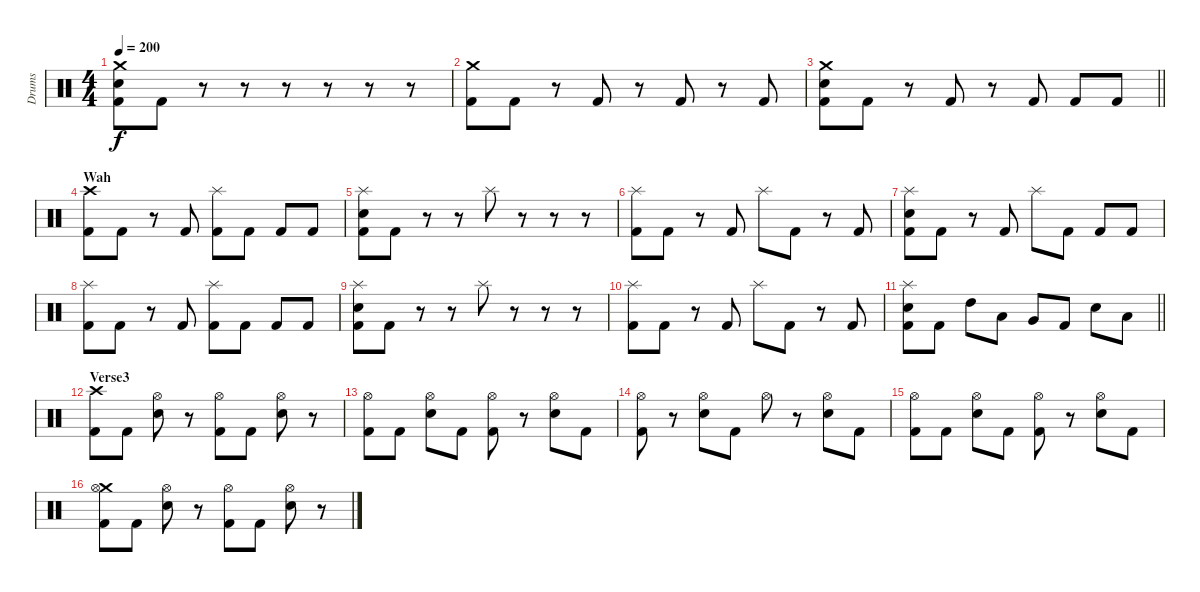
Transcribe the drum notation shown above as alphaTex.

\track ("Drums" "Drums") {instrument percussion}
\staff {score}
\articulation defaults
\ts (4 4)
\tempo 200
\clef neutral
\ks c
("Crash medium (hit)" "Electric Snare (hit)" "Kick (hit) 2").8{dy f} "Kick (hit) 2".8 r.8 r.8 r.8 r.8 r.8 r.8 |
("Crash medium (hit)" "Kick (hit) 2").8 "Kick (hit) 2".8 r.8 "Kick (hit) 2".8 r.8 "Kick (hit) 2".8 r.8 "Kick (hit) 2".8 |
\barLineRight lightlight
("Crash medium (hit)" "Electric Snare (hit)" "Kick (hit) 2").8 "Kick (hit) 2".8 r.8 "Kick (hit) 2".8 r.8 "Kick (hit) 2".8 "Kick (hit) 2".8 "Kick (hit) 2".8 |
\section ("" "Wah")
("Crash high (hit)" "Kick (hit) 2").8 "Kick (hit) 2".8 r.8 "Kick (hit) 2".8 ("Splash (hit)" "Kick (hit) 2").8 "Kick (hit) 2".8 "Kick (hit) 2".8 "Kick (hit) 2".8 |
("Splash (hit)" "Electric Snare (hit)" "Kick (hit) 2").8 "Kick (hit) 2".8 r.8 r.8 "Splash (hit)".8 r.8 r.8 r.8 |
("Splash (hit)" "Kick (hit) 2").8 "Kick (hit) 2".8 r.8 "Kick (hit) 2".8 "Splash (hit)".8 "Kick (hit) 2".8 r.8 "Kick (hit) 2".8 |
("Splash (hit)" "Electric Snare (hit)" "Kick (hit) 2").8 "Kick (hit) 2".8 r.8 "Kick (hit) 2".8 "Splash (hit)".8 "Kick (hit) 2".8 "Kick (hit) 2".8 "Kick (hit) 2".8 |
("Splash (hit)" "Kick (hit) 2").8 "Kick (hit) 2".8 r.8 "Kick (hit) 2".8 ("Splash (hit)" "Kick (hit) 2").8 "Kick (hit) 2".8 "Kick (hit) 2".8 "Kick (hit) 2".8 |
("Splash (hit)" "Electric Snare (hit)" "Kick (hit) 2").8 "Kick (hit) 2".8 r.8 r.8 "Splash (hit)".8 r.8 r.8 r.8 |
("Splash (hit)" "Kick (hit) 2").8 "Kick (hit) 2".8 r.8 "Kick (hit) 2".8 "Splash (hit)".8 "Kick (hit) 2".8 r.8 "Kick (hit) 2".8 |
\barLineRight lightlight
("Splash (hit)" "Electric Snare (hit)" "Kick (hit) 2").8 "Kick (hit) 2".8 "High Tom (hit)".8 "Low Tom (hit)".8 "Very Low Tom (hit)".8 "Kick (hit) 2".8 "Electric Snare (hit)".8 "Low Tom (hit)".8 |
\section ("" "Verse3")
("Crash high (hit)" "Kick (hit) 2").8 "Kick (hit) 2".8 ("Hi-Hat (open)" "Electric Snare (hit)").8 r.8 ("Hi-Hat (open)" "Kick (hit) 2").8 "Kick (hit) 2".8 ("Hi-Hat (open)" "Electric Snare (hit)").8 r.8 |
("Hi-Hat (open)" "Kick (hit) 2").8 "Kick (hit) 2".8 ("Hi-Hat (open)" "Electric Snare (hit)").8 "Kick (hit) 2".8 ("Hi-Hat (open)" "Kick (hit) 2").8 r.8 ("Hi-Hat (open)" "Electric Snare (hit)").8 "Kick (hit) 2".8 |
("Hi-Hat (open)" "Kick (hit) 2").8 r.8 ("Hi-Hat (open)" "Electric Snare (hit)").8 "Kick (hit) 2".8 "Hi-Hat (open)".8 r.8 ("Hi-Hat (open)" "Electric Snare (hit)").8 "Kick (hit) 2".8 |
("Hi-Hat (open)" "Kick (hit) 2").8 "Kick (hit) 2".8 ("Hi-Hat (open)" "Electric Snare (hit)").8 "Kick (hit) 2".8 ("Hi-Hat (open)" "Kick (hit) 2").8 r.8 ("Hi-Hat (open)" "Electric Snare (hit)").8 "Kick (hit) 2".8 |
("Crash medium (hit)" "Hi-Hat (open)" "Kick (hit) 2").8 "Kick (hit) 2".8 ("Hi-Hat (open)" "Electric Snare (hit)").8 r.8 ("Hi-Hat (open)" "Kick (hit) 2").8 "Kick (hit) 2".8 ("Hi-Hat (open)" "Electric Snare (hit)").8 r.8
